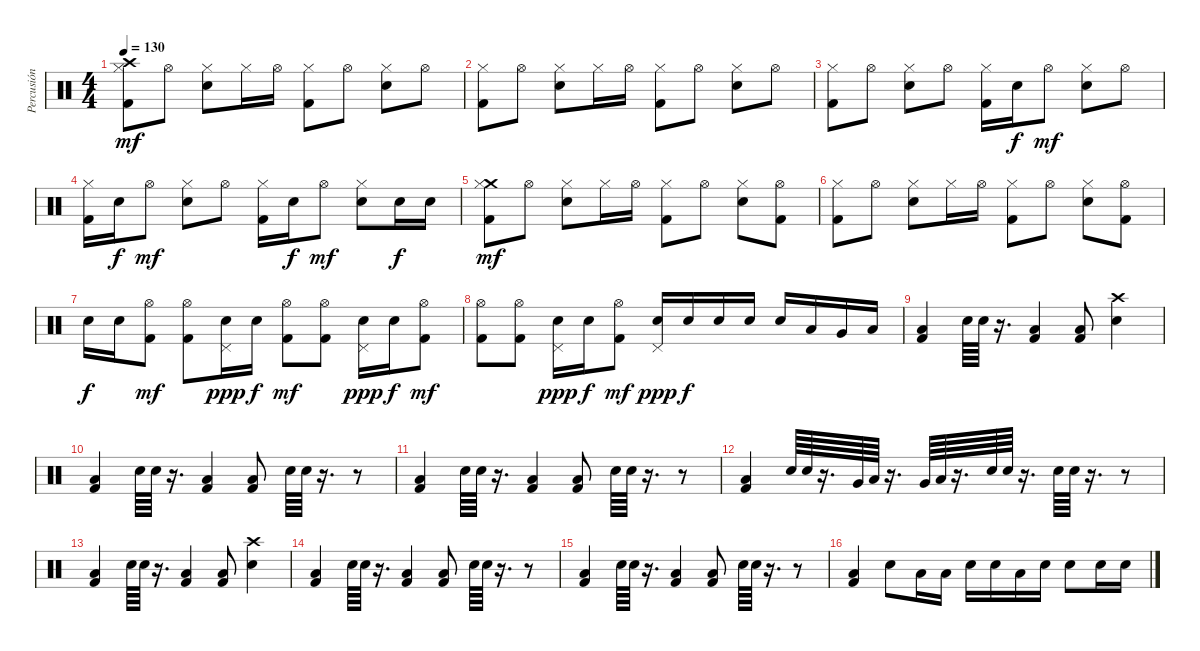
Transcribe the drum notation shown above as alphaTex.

\track ("Percusión" "Percusión") {instrument percussion}
\staff {score}
\articulation defaults
\ts (4 4)
\tempo 130
\clef neutral
\ks c
("Crash high (hit)" "Hi-Hat (closed)" "Kick (hit) 2").8{dy mf} "Hi-Hat (open)".8 ("Hi-Hat (closed)" "Snare (hit) 2").8 "Hi-Hat (closed)".16 "Hi-Hat (open)".16 ("Hi-Hat (closed)" "Kick (hit) 2").8 "Hi-Hat (open)".8 ("Hi-Hat (closed)" "Snare (hit) 2").8 "Hi-Hat (open)".8 |
("Hi-Hat (closed)" "Kick (hit) 2").8 "Hi-Hat (open)".8 ("Hi-Hat (closed)" "Snare (hit) 2").8 "Hi-Hat (closed)".16 "Hi-Hat (open)".16 ("Hi-Hat (closed)" "Kick (hit) 2").8 "Hi-Hat (open)".8 ("Hi-Hat (closed)" "Snare (hit) 2").8 "Hi-Hat (open)".8 |
("Hi-Hat (closed)" "Kick (hit) 2").8 "Hi-Hat (open)".8 ("Hi-Hat (closed)" "Snare (hit) 2").8 "Hi-Hat (open)".8 ("Hi-Hat (closed)" "Kick (hit) 2").16 "Snare (hit) 2".16{dy f} "Hi-Hat (open)".8{dy mf} ("Hi-Hat (closed)" "Snare (hit) 2").8 "Hi-Hat (open)".8 |
("Hi-Hat (closed)" "Kick (hit) 2").16 "Snare (hit) 2".16{dy f} "Hi-Hat (open)".8{dy mf} ("Hi-Hat (closed)" "Snare (hit) 2").8 "Hi-Hat (open)".8 ("Hi-Hat (closed)" "Kick (hit) 2").16 "Snare (hit) 2".16{dy f} "Hi-Hat (open)".8{dy mf} ("Hi-Hat (closed)" "Snare (hit) 2").8 "Snare (hit) 2".16{dy f} "Snare (hit) 2".16 |
("Crash medium (hit)" "Hi-Hat (closed)" "Kick (hit) 2").8{dy mf} "Hi-Hat (open)".8 ("Hi-Hat (closed)" "Snare (hit) 2").8 "Hi-Hat (closed)".16 "Hi-Hat (open)".16 ("Hi-Hat (closed)" "Kick (hit) 2").8 "Hi-Hat (open)".8 ("Hi-Hat (closed)" "Snare (hit) 2").8 ("Hi-Hat (open)" "Kick (hit) 2").8 |
("Hi-Hat (closed)" "Kick (hit) 2").8 "Hi-Hat (open)".8 ("Hi-Hat (closed)" "Snare (hit) 2").8 "Hi-Hat (closed)".16 "Hi-Hat (open)".16 ("Hi-Hat (closed)" "Kick (hit) 2").8 "Hi-Hat (open)".8 ("Hi-Hat (closed)" "Snare (hit) 2").8 ("Hi-Hat (open)" "Kick (hit) 2").8 |
"Snare (hit) 2".16{dy f} "Snare (hit) 2".16 ("Hi-Hat (open)" "Kick (hit) 2").8{dy mf} ("Hi-Hat (open)" "Kick (hit) 2").8 ("Pedal Hi-Hat (hit)" "Snare (hit) 2").16{dy ppp} "Snare (hit) 2".16{dy f} ("Hi-Hat (open)" "Kick (hit) 2").8{dy mf} ("Hi-Hat (open)" "Kick (hit) 2").8 ("Pedal Hi-Hat (hit)" "Snare (hit) 2").16{dy ppp} "Snare (hit) 2".16{dy f} ("Hi-Hat (open)" "Kick (hit) 2").8{dy mf} |
("Hi-Hat (open)" "Kick (hit) 2").8 ("Hi-Hat (open)" "Kick (hit) 2").8 ("Pedal Hi-Hat (hit)" "Snare (hit) 2").16{dy ppp} "Snare (hit) 2".16{dy f} ("Hi-Hat (open)" "Kick (hit) 2").8{dy mf} ("Pedal Hi-Hat (hit)" "Snare (hit) 2").16{dy ppp} "Snare (hit) 2".16{dy f} "Snare (hit) 2".16 "Snare (hit) 2".16 "Snare (hit) 2".16 "Low Tom (hit)".16 "Very Low Tom (hit)".16 "Low Floor Tom (hit)".16 |
("Low Floor Tom (hit)" "Kick (hit) 2").4 "Snare (hit) 2".64 "Snare (hit) 2".64 r.16{d} ("Low Floor Tom (hit)" "Kick (hit) 2").4 ("Low Floor Tom (hit)" "Kick (hit) 2").8 ("Crash high (hit)" "Snare (hit) 2").4 |
("Low Floor Tom (hit)" "Kick (hit) 2").4 "Snare (hit) 2".64 "Snare (hit) 2".64 r.16{d} ("Low Floor Tom (hit)" "Kick (hit) 2").4 ("Low Floor Tom (hit)" "Kick (hit) 2").8 "Snare (hit) 2".64 "Snare (hit) 2".64 r.16{d} r.8 |
("Low Floor Tom (hit)" "Kick (hit) 2").4 "Snare (hit) 2".64 "Snare (hit) 2".64 r.16{d} ("Low Floor Tom (hit)" "Kick (hit) 2").4 ("Low Floor Tom (hit)" "Kick (hit) 2").8 "Snare (hit) 2".64 "Snare (hit) 2".64 r.16{d} r.8 |
("Low Floor Tom (hit)" "Kick (hit) 2").4 "Snare (hit) 2".64 "Snare (hit) 2".64 r.16{d} "Very Low Tom (hit)".64 "Low Floor Tom (hit)".64 r.16{d} "Very Low Tom (hit)".64 "Low Floor Tom (hit)".64 r.16{d} "Snare (hit) 2".64 "Snare (hit) 2".64 r.16{d} "Snare (hit) 2".64 "Snare (hit) 2".64 r.16{d} r.8 |
("Low Floor Tom (hit)" "Kick (hit) 2").4 "Snare (hit) 2".64 "Snare (hit) 2".64 r.16{d} ("Low Floor Tom (hit)" "Kick (hit) 2").4 ("Low Floor Tom (hit)" "Kick (hit) 2").8 ("Crash high (hit)" "Snare (hit) 2").4 |
("Low Floor Tom (hit)" "Kick (hit) 2").4 "Snare (hit) 2".64 "Snare (hit) 2".64 r.16{d} ("Low Floor Tom (hit)" "Kick (hit) 2").4 ("Low Floor Tom (hit)" "Kick (hit) 2").8 "Snare (hit) 2".64 "Snare (hit) 2".64 r.16{d} r.8 |
("Low Floor Tom (hit)" "Kick (hit) 2").4 "Snare (hit) 2".64 "Snare (hit) 2".64 r.16{d} ("Low Floor Tom (hit)" "Kick (hit) 2").4 ("Low Floor Tom (hit)" "Kick (hit) 2").8 "Snare (hit) 2".64 "Snare (hit) 2".64 r.16{d} r.8 |
("Low Floor Tom (hit)" "Kick (hit) 2").4 "Snare (hit) 2".8 "Low Tom (hit)".16 "Low Tom (hit)".16 "Snare (hit) 2".16 "Snare (hit) 2".16 "Low Tom (hit)".16 "Snare (hit) 2".16 "Snare (hit) 2".8 "Snare (hit) 2".16 "Snare (hit) 2".16
